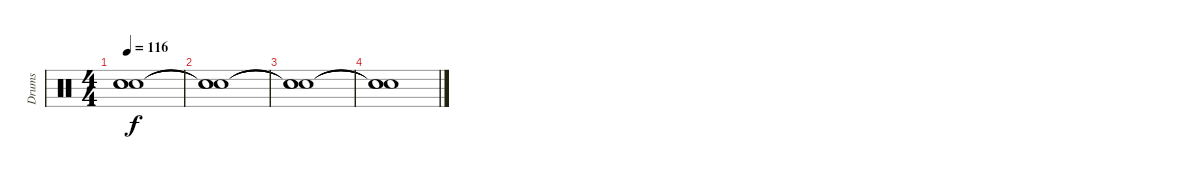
\track ("Drums" "Drums") {instrument percussion}
\staff {score}
\articulation defaults
\ts (4 4)
\tempo 116
\clef neutral
\ks c
("Snare (hit)"{t} "Snare (hit)"{t} "Snare (hit)"{t}).1{dy f} |
("Snare (hit)"{t} "Snare (hit)"{t} "Snare (hit)"{t}).1 |
("Snare (hit)"{t} "Snare (hit)"{t} "Snare (hit)"{t}).1 |
("Snare (hit)"{t} "Snare (hit)"{t} "Snare (hit)"{t}).1
